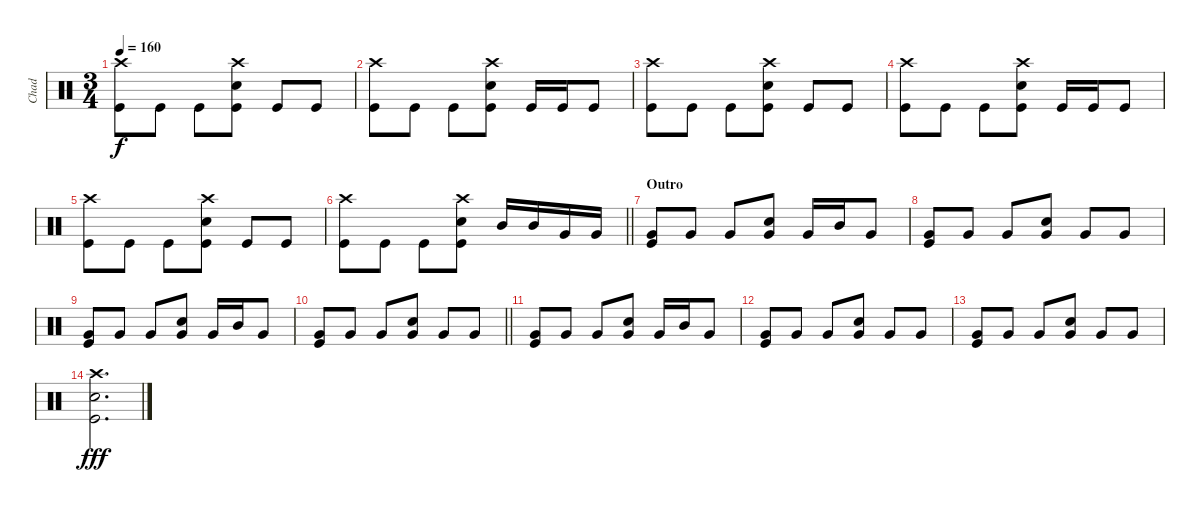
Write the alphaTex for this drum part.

\track ("Chad" "Chad") {instrument percussion}
\staff {score}
\articulation defaults
\ts (3 4)
\tempo 160
\clef neutral
\ks c
("Crash high (hit)" "Kick (hit)").8{dy f} "Kick (hit)".8 "Kick (hit)".8 ("Kick (hit)" "Snare (hit) 2" "Crash high (hit)").8 "Kick (hit)".8 "Kick (hit)".8 |
("Crash high (hit)" "Kick (hit)").8 "Kick (hit)".8 "Kick (hit)".8 ("Kick (hit)" "Snare (hit) 2" "Crash high (hit)").8 "Kick (hit)".16 "Kick (hit)".16 "Kick (hit)".8 |
("Crash high (hit)" "Kick (hit)").8 "Kick (hit)".8 "Kick (hit)".8 ("Kick (hit)" "Snare (hit) 2" "Crash high (hit)").8 "Kick (hit)".8 "Kick (hit)".8 |
("Crash high (hit)" "Kick (hit)").8 "Kick (hit)".8 "Kick (hit)".8 ("Kick (hit)" "Snare (hit) 2" "Crash high (hit)").8 "Kick (hit)".16 "Kick (hit)".16 "Kick (hit)".8 |
("Crash high (hit)" "Kick (hit)").8 "Kick (hit)".8 "Kick (hit)".8 ("Kick (hit)" "Snare (hit) 2" "Crash high (hit)").8 "Kick (hit)".8 "Kick (hit)".8 |
\barLineRight lightlight
("Crash high (hit)" "Kick (hit)").8 "Kick (hit)".8 "Kick (hit)".8 ("Kick (hit)" "Snare (hit) 2" "Crash high (hit)").8 "Mid Tom (hit)".16 "Mid Tom (hit)".16 "Very Low Tom (hit)".16 "Very Low Tom (hit)".16 |
\section ("" "Outro")
("Very Low Tom (hit)" "Kick (hit)").8 "Very Low Tom (hit)".8 "Very Low Tom (hit)".8 ("Very Low Tom (hit)" "Snare (hit) 2").8 "Very Low Tom (hit)".16 "Mid Tom (hit)".16 "Very Low Tom (hit)".8 |
("Very Low Tom (hit)" "Kick (hit)").8 "Very Low Tom (hit)".8 "Very Low Tom (hit)".8 ("Very Low Tom (hit)" "Snare (hit) 2").8 "Very Low Tom (hit)".8 "Very Low Tom (hit)".8 |
("Very Low Tom (hit)" "Kick (hit)").8 "Very Low Tom (hit)".8 "Very Low Tom (hit)".8 ("Very Low Tom (hit)" "Snare (hit) 2").8 "Very Low Tom (hit)".16 "Mid Tom (hit)".16 "Very Low Tom (hit)".8 |
\barLineRight lightlight
("Very Low Tom (hit)" "Kick (hit)").8 "Very Low Tom (hit)".8 "Very Low Tom (hit)".8 ("Very Low Tom (hit)" "Snare (hit) 2").8 "Very Low Tom (hit)".8 "Very Low Tom (hit)".8 |
("Very Low Tom (hit)" "Kick (hit)").8 "Very Low Tom (hit)".8 "Very Low Tom (hit)".8 ("Very Low Tom (hit)" "Snare (hit) 2").8 "Very Low Tom (hit)".16 "Mid Tom (hit)".16 "Very Low Tom (hit)".8 |
("Very Low Tom (hit)" "Kick (hit)").8 "Very Low Tom (hit)".8 "Very Low Tom (hit)".8 ("Very Low Tom (hit)" "Snare (hit) 2").8 "Very Low Tom (hit)".8 "Very Low Tom (hit)".8 |
("Very Low Tom (hit)" "Kick (hit)").8 "Very Low Tom (hit)".8 "Very Low Tom (hit)".8 ("Very Low Tom (hit)" "Snare (hit) 2").8 "Very Low Tom (hit)".8 "Very Low Tom (hit)".8 |
("Snare (hit) 2" "Kick (hit)" "Crash high (hit)").2{d dy fff}
